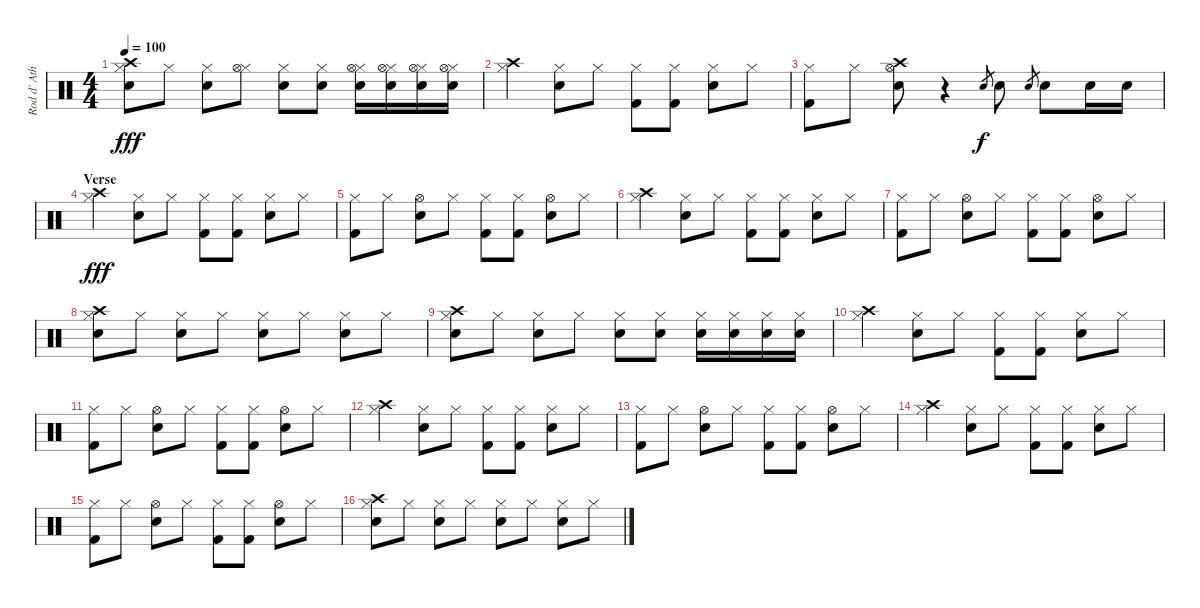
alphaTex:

\track ("Rod d' Ath" "Rod d' Ath") {instrument percussion}
\staff {score}
\articulation defaults
\ts (4 4)
\tempo 100
\clef neutral
\ks c
("Snare (hit) 2" "Hi-Hat (closed)" "Crash high (hit)").8{dy fff} "Hi-Hat (closed)".8 ("Snare (hit) 2" "Hi-Hat (closed)").8 ("Hi-Hat (closed)" "Hi-Hat (open)").8 ("Snare (hit) 2" "Hi-Hat (closed)").8 ("Snare (hit) 2" "Hi-Hat (closed)").8 ("Snare (hit) 2" "Hi-Hat (closed)" "Hi-Hat (open)").16 ("Snare (hit) 2" "Hi-Hat (closed)" "Hi-Hat (open)").16 ("Snare (hit) 2" "Hi-Hat (closed)" "Hi-Hat (open)").16 ("Snare (hit) 2" "Hi-Hat (closed)" "Hi-Hat (open)").16 |
("Crash high (hit)" "Hi-Hat (closed)").4 ("Snare (hit) 2" "Hi-Hat (closed)").8 "Hi-Hat (closed)".8 ("Kick (hit) 2" "Hi-Hat (closed)").8 ("Kick (hit) 2" "Hi-Hat (closed)").8 ("Snare (hit) 2" "Hi-Hat (closed)").8 "Hi-Hat (closed)".8 |
("Kick (hit) 2" "Hi-Hat (closed)").8 "Hi-Hat (closed)".8 ("Hi-Hat (open)" "Snare (hit) 2" "Crash high (hit)").8 r.4 "Snare (hit) 2".8{gr dy f} "Snare (hit) 2".8 "Snare (hit) 2".8{gr} "Snare (hit) 2".8 "Snare (hit) 2".16 "Snare (hit) 2".16 |
\section ("" "Verse")
("Crash high (hit)" "Hi-Hat (closed)").4{dy fff} ("Snare (hit) 2" "Hi-Hat (closed)").8 "Hi-Hat (closed)".8 ("Kick (hit) 2" "Hi-Hat (closed)").8 ("Kick (hit) 2" "Hi-Hat (closed)").8 ("Snare (hit) 2" "Hi-Hat (closed)").8 "Hi-Hat (closed)".8 |
("Kick (hit) 2" "Hi-Hat (closed)").8 "Hi-Hat (closed)".8 ("Hi-Hat (open)" "Snare (hit) 2").8 "Hi-Hat (closed)".8 ("Kick (hit) 2" "Hi-Hat (closed)").8 ("Kick (hit) 2" "Hi-Hat (closed)").8 ("Snare (hit) 2" "Hi-Hat (open)").8 "Hi-Hat (closed)".8 |
("Crash high (hit)" "Hi-Hat (closed)").4 ("Snare (hit) 2" "Hi-Hat (closed)").8 "Hi-Hat (closed)".8 ("Kick (hit) 2" "Hi-Hat (closed)").8 ("Kick (hit) 2" "Hi-Hat (closed)").8 ("Snare (hit) 2" "Hi-Hat (closed)").8 "Hi-Hat (closed)".8 |
("Kick (hit) 2" "Hi-Hat (closed)").8 "Hi-Hat (closed)".8 ("Hi-Hat (open)" "Snare (hit) 2").8 "Hi-Hat (closed)".8 ("Kick (hit) 2" "Hi-Hat (closed)").8 ("Kick (hit) 2" "Hi-Hat (closed)").8 ("Snare (hit) 2" "Hi-Hat (open)").8 "Hi-Hat (closed)".8 |
("Snare (hit) 2" "Hi-Hat (closed)" "Crash high (hit)").8{volume 16} "Hi-Hat (closed)".8 ("Snare (hit) 2" "Hi-Hat (closed)").8 "Hi-Hat (closed)".8 ("Snare (hit) 2" "Hi-Hat (closed)").8 "Hi-Hat (closed)".8 ("Snare (hit) 2" "Hi-Hat (closed)").8 "Hi-Hat (closed)".8 |
("Snare (hit) 2" "Hi-Hat (closed)" "Crash high (hit)").8 "Hi-Hat (closed)".8 ("Snare (hit) 2" "Hi-Hat (closed)").8 "Hi-Hat (closed)".8 ("Snare (hit) 2" "Hi-Hat (closed)").8 ("Snare (hit) 2" "Hi-Hat (closed)").8 ("Snare (hit) 2" "Hi-Hat (closed)").16 ("Snare (hit) 2" "Hi-Hat (closed)").16 ("Snare (hit) 2" "Hi-Hat (closed)").16 ("Snare (hit) 2" "Hi-Hat (closed)").16 |
("Crash high (hit)" "Hi-Hat (closed)").4 ("Snare (hit) 2" "Hi-Hat (closed)").8 "Hi-Hat (closed)".8 ("Kick (hit) 2" "Hi-Hat (closed)").8 ("Kick (hit) 2" "Hi-Hat (closed)").8 ("Snare (hit) 2" "Hi-Hat (closed)").8 "Hi-Hat (closed)".8 |
("Kick (hit) 2" "Hi-Hat (closed)").8 "Hi-Hat (closed)".8 ("Hi-Hat (open)" "Snare (hit) 2").8 "Hi-Hat (closed)".8 ("Kick (hit) 2" "Hi-Hat (closed)").8 ("Kick (hit) 2" "Hi-Hat (closed)").8 ("Snare (hit) 2" "Hi-Hat (open)").8 "Hi-Hat (closed)".8 |
("Crash high (hit)" "Hi-Hat (closed)").4 ("Snare (hit) 2" "Hi-Hat (closed)").8 "Hi-Hat (closed)".8 ("Kick (hit) 2" "Hi-Hat (closed)").8 ("Kick (hit) 2" "Hi-Hat (closed)").8 ("Snare (hit) 2" "Hi-Hat (closed)").8 "Hi-Hat (closed)".8 |
("Kick (hit) 2" "Hi-Hat (closed)").8 "Hi-Hat (closed)".8 ("Hi-Hat (open)" "Snare (hit) 2").8 "Hi-Hat (closed)".8 ("Kick (hit) 2" "Hi-Hat (closed)").8 ("Kick (hit) 2" "Hi-Hat (closed)").8 ("Snare (hit) 2" "Hi-Hat (open)").8 "Hi-Hat (closed)".8 |
("Crash high (hit)" "Hi-Hat (closed)").4 ("Snare (hit) 2" "Hi-Hat (closed)").8 "Hi-Hat (closed)".8 ("Kick (hit) 2" "Hi-Hat (closed)").8 ("Kick (hit) 2" "Hi-Hat (closed)").8 ("Snare (hit) 2" "Hi-Hat (closed)").8 "Hi-Hat (closed)".8 |
("Kick (hit) 2" "Hi-Hat (closed)").8 "Hi-Hat (closed)".8 ("Hi-Hat (open)" "Snare (hit) 2").8 "Hi-Hat (closed)".8 ("Kick (hit) 2" "Hi-Hat (closed)").8 ("Kick (hit) 2" "Hi-Hat (closed)").8 ("Snare (hit) 2" "Hi-Hat (open)").8 "Hi-Hat (closed)".8 |
("Snare (hit) 2" "Hi-Hat (closed)" "Crash high (hit)").8{volume 16} "Hi-Hat (closed)".8 ("Snare (hit) 2" "Hi-Hat (closed)").8 "Hi-Hat (closed)".8 ("Snare (hit) 2" "Hi-Hat (closed)").8 "Hi-Hat (closed)".8 ("Snare (hit) 2" "Hi-Hat (closed)").8 "Hi-Hat (closed)".8
